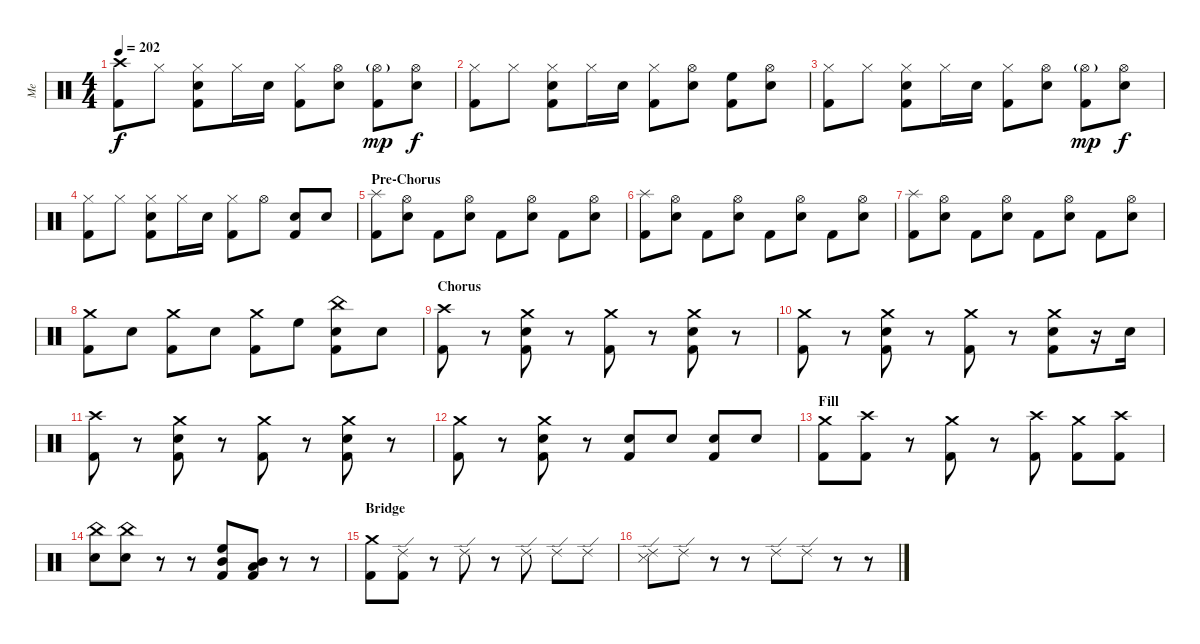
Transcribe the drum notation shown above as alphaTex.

\track ("Me" "Me") {instrument percussion}
\staff {score}
\articulation defaults
\ts (4 4)
\tempo 202
\clef neutral
\ks c
("Crash high (hit)" "Kick (hit) 2").8{dy f} "Hi-Hat (closed)".8 ("Hi-Hat (closed)" "Electric Snare (hit)" "Kick (hit) 2").8 "Hi-Hat (closed)".16 "Electric Snare (hit)".16 ("Hi-Hat (closed)" "Kick (hit) 2").8 ("Hi-Hat (open)" "Electric Snare (hit)").8 ("Hi-Hat (open)"{g} "Kick (hit) 2").8{dy mp} ("Hi-Hat (open)" "Electric Snare (hit)").8{dy f} |
("Hi-Hat (closed)" "Kick (hit) 2").8 "Hi-Hat (closed)".8 ("Hi-Hat (closed)" "Electric Snare (hit)" "Kick (hit) 2").8 "Hi-Hat (closed)".16 "Electric Snare (hit)".16 ("Hi-Hat (closed)" "Kick (hit) 2").8 ("Hi-Hat (open)" "Electric Snare (hit)").8 ("High Floor Tom (hit)" "Kick (hit) 2").8 ("Hi-Hat (open)" "Electric Snare (hit)").8 |
("Hi-Hat (closed)" "Kick (hit) 2").8 "Hi-Hat (closed)".8 ("Hi-Hat (closed)" "Electric Snare (hit)" "Kick (hit) 2").8 "Hi-Hat (closed)".16 "Electric Snare (hit)".16 ("Hi-Hat (closed)" "Kick (hit) 2").8 ("Hi-Hat (open)" "Electric Snare (hit)").8 ("Hi-Hat (open)"{g} "Kick (hit) 2").8{dy mp} ("Hi-Hat (open)" "Electric Snare (hit)").8{dy f} |
("Hi-Hat (closed)" "Kick (hit) 2").8 "Hi-Hat (closed)".8 ("Hi-Hat (closed)" "Electric Snare (hit)" "Kick (hit) 2").8 "Hi-Hat (closed)".16 "Electric Snare (hit)".16 ("Hi-Hat (closed)" "Kick (hit) 2").8 "Hi-Hat (open)".8 ("Electric Snare (hit)" "Kick (hit) 2").8 "Electric Snare (hit)".8 |
\section ("" "Pre-Chorus")
("Splash (hit)" "Kick (hit) 2").8 ("Hi-Hat (open)" "Electric Snare (hit)").8 "Kick (hit) 2".8 ("Hi-Hat (open)" "Electric Snare (hit)").8 "Kick (hit) 2".8 ("Hi-Hat (open)" "Electric Snare (hit)").8 "Kick (hit) 2".8 ("Hi-Hat (open)" "Electric Snare (hit)").8 |
("Splash (hit)" "Kick (hit) 2").8 ("Hi-Hat (open)" "Electric Snare (hit)").8 "Kick (hit) 2".8 ("Hi-Hat (open)" "Electric Snare (hit)").8 "Kick (hit) 2".8 ("Hi-Hat (open)" "Electric Snare (hit)").8 "Kick (hit) 2".8 ("Hi-Hat (open)" "Electric Snare (hit)").8 |
("Splash (hit)" "Kick (hit) 2").8 ("Hi-Hat (open)" "Electric Snare (hit)").8 "Kick (hit) 2".8 ("Hi-Hat (open)" "Electric Snare (hit)").8 "Kick (hit) 2".8 ("Hi-Hat (open)" "Electric Snare (hit)").8 "Kick (hit) 2".8 ("Hi-Hat (open)" "Electric Snare (hit)").8 |
("Crash medium (hit)" "Kick (hit) 2").8 "Electric Snare (hit)".8 ("Crash medium (hit)" "Kick (hit) 2").8 "Electric Snare (hit)".8 ("Crash medium (hit)" "Kick (hit) 2").8 "High Floor Tom (hit)".8 ("China (hit)" "Electric Snare (hit)" "Kick (hit) 2").8 "Electric Snare (hit)".8 |
\section ("" "Chorus")
("Crash high (hit)" "Kick (hit) 2").8 r.8 ("Crash medium (hit)" "Electric Snare (hit)" "Kick (hit) 2").8 r.8 ("Crash medium (hit)" "Kick (hit) 2").8 r.8 ("Crash medium (hit)" "Electric Snare (hit)" "Kick (hit) 2").8 r.8 |
("Crash medium (hit)" "Kick (hit) 2").8 r.8 ("Crash medium (hit)" "Electric Snare (hit)" "Kick (hit) 2").8 r.8 ("Crash medium (hit)" "Kick (hit) 2").8 r.8 ("Crash medium (hit)" "Electric Snare (hit)" "Kick (hit) 2").8 r.16 "Electric Snare (hit)".16 |
("Crash high (hit)" "Kick (hit) 2").8 r.8 ("Crash medium (hit)" "Electric Snare (hit)" "Kick (hit) 2").8 r.8 ("Crash medium (hit)" "Kick (hit) 2").8 r.8 ("Crash medium (hit)" "Electric Snare (hit)" "Kick (hit) 2").8 r.8 |
("Crash medium (hit)" "Kick (hit) 2").8 r.8 ("Crash medium (hit)" "Electric Snare (hit)" "Kick (hit) 2").8 r.8 ("Electric Snare (hit)" "Kick (hit) 2").8 "Electric Snare (hit)".8 ("Electric Snare (hit)" "Kick (hit) 2").8 "Electric Snare (hit)".8 |
\section ("" "Fill")
("Crash medium (hit)" "Kick (hit) 2").8 ("Crash high (hit)" "Kick (hit) 2").8 r.8 ("Crash medium (hit)" "Kick (hit) 2").8 r.8 ("Crash high (hit)" "Kick (hit) 2").8 ("Crash medium (hit)" "Kick (hit) 2").8 ("Crash high (hit)" "Kick (hit) 2").8 |
("China (hit)" "Electric Snare (hit)").8 ("China (hit)" "Electric Snare (hit)").8 r.8 r.8 ("High Floor Tom (hit)" "Mid Tom (hit)" "Kick (hit) 2").8 ("Mid Tom (hit)" "Low Tom (hit)" "Kick (hit) 2").8 r.8 r.8 |
\section ("" "Bridge")
("Crash medium (hit)" "Kick (hit) 2").8 ("Ride (edge) 2" "Kick (hit) 2").8 r.8 "Ride (edge) 2".8 r.8 "Ride (edge) 2".8 "Ride (edge) 2".8 "Ride (edge) 2".8 |
("Ride (edge) 2" "Snare (side stick) 3").8 "Ride (edge) 2".8 r.8 r.8 "Ride (edge) 2".8 "Ride (edge) 2".8 r.8 r.8
